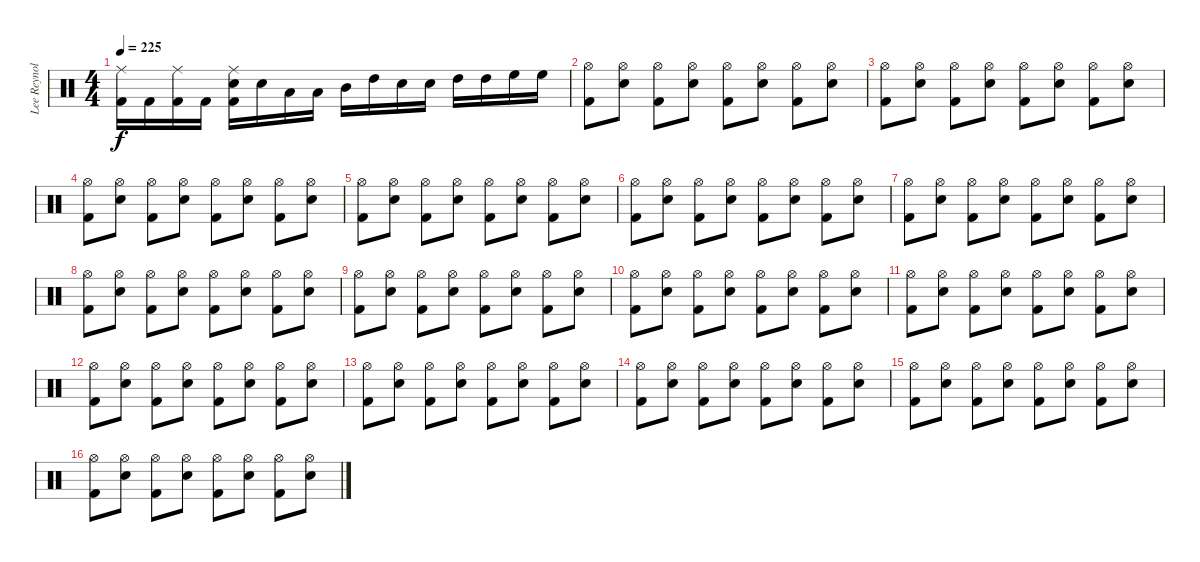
\track ("Lee Reynolds" "Lee Reynol") {instrument percussion}
\staff {score}
\articulation defaults
\ts (4 4)
\tempo 225
\clef neutral
\ks c
("Ride (middle)" "Kick (hit) 2").16{dy f} "Kick (hit) 2".16 ("Ride (middle)" "Kick (hit) 2").16 "Kick (hit) 2".16 ("Ride (middle)" "Snare (hit) 2" "Kick (hit) 2").16 "Snare (hit) 2".16 "Low Tom (hit)".16 "Low Tom (hit)".16 "Mid Tom (hit)".16 "High Tom (hit)".16 "Snare (hit) 2".16 "Snare (hit) 2".16 "High Tom (hit)".16 "High Tom (hit)".16 "High Floor Tom (hit)".16 "High Floor Tom (hit)".16 |
("Hi-Hat (open)" "Kick (hit) 2").8 ("Hi-Hat (open)" "Snare (hit) 2").8 ("Hi-Hat (open)" "Kick (hit) 2").8 ("Hi-Hat (open)" "Snare (hit) 2").8 ("Hi-Hat (open)" "Kick (hit) 2").8 ("Hi-Hat (open)" "Snare (hit) 2").8 ("Hi-Hat (open)" "Kick (hit) 2").8 ("Hi-Hat (open)" "Snare (hit) 2").8 |
("Hi-Hat (open)" "Kick (hit) 2").8 ("Hi-Hat (open)" "Snare (hit) 2").8 ("Hi-Hat (open)" "Kick (hit) 2").8 ("Hi-Hat (open)" "Snare (hit) 2").8 ("Hi-Hat (open)" "Kick (hit) 2").8 ("Hi-Hat (open)" "Snare (hit) 2").8 ("Hi-Hat (open)" "Kick (hit) 2").8 ("Hi-Hat (open)" "Snare (hit) 2").8 |
("Hi-Hat (open)" "Kick (hit) 2").8 ("Hi-Hat (open)" "Snare (hit) 2").8 ("Hi-Hat (open)" "Kick (hit) 2").8 ("Hi-Hat (open)" "Snare (hit) 2").8 ("Hi-Hat (open)" "Kick (hit) 2").8 ("Hi-Hat (open)" "Snare (hit) 2").8 ("Hi-Hat (open)" "Kick (hit) 2").8 ("Hi-Hat (open)" "Snare (hit) 2").8 |
("Hi-Hat (open)" "Kick (hit) 2").8 ("Hi-Hat (open)" "Snare (hit) 2").8 ("Hi-Hat (open)" "Kick (hit) 2").8 ("Hi-Hat (open)" "Snare (hit) 2").8 ("Hi-Hat (open)" "Kick (hit) 2").8 ("Hi-Hat (open)" "Snare (hit) 2").8 ("Hi-Hat (open)" "Kick (hit) 2").8 ("Hi-Hat (open)" "Snare (hit) 2").8 |
("Hi-Hat (open)" "Kick (hit) 2").8 ("Hi-Hat (open)" "Snare (hit) 2").8 ("Hi-Hat (open)" "Kick (hit) 2").8 ("Hi-Hat (open)" "Snare (hit) 2").8 ("Hi-Hat (open)" "Kick (hit) 2").8 ("Hi-Hat (open)" "Snare (hit) 2").8 ("Hi-Hat (open)" "Kick (hit) 2").8 ("Hi-Hat (open)" "Snare (hit) 2").8 |
("Hi-Hat (open)" "Kick (hit) 2").8 ("Hi-Hat (open)" "Snare (hit) 2").8 ("Hi-Hat (open)" "Kick (hit) 2").8 ("Hi-Hat (open)" "Snare (hit) 2").8 ("Hi-Hat (open)" "Kick (hit) 2").8 ("Hi-Hat (open)" "Snare (hit) 2").8 ("Hi-Hat (open)" "Kick (hit) 2").8 ("Hi-Hat (open)" "Snare (hit) 2").8 |
("Hi-Hat (open)" "Kick (hit) 2").8 ("Hi-Hat (open)" "Snare (hit) 2").8 ("Hi-Hat (open)" "Kick (hit) 2").8 ("Hi-Hat (open)" "Snare (hit) 2").8 ("Hi-Hat (open)" "Kick (hit) 2").8 ("Hi-Hat (open)" "Snare (hit) 2").8 ("Hi-Hat (open)" "Kick (hit) 2").8 ("Hi-Hat (open)" "Snare (hit) 2").8 |
("Hi-Hat (open)" "Kick (hit) 2").8 ("Hi-Hat (open)" "Snare (hit) 2").8 ("Hi-Hat (open)" "Kick (hit) 2").8 ("Hi-Hat (open)" "Snare (hit) 2").8 ("Hi-Hat (open)" "Kick (hit) 2").8 ("Hi-Hat (open)" "Snare (hit) 2").8 ("Hi-Hat (open)" "Kick (hit) 2").8 ("Hi-Hat (open)" "Snare (hit) 2").8 |
("Hi-Hat (open)" "Kick (hit) 2").8 ("Hi-Hat (open)" "Snare (hit) 2").8 ("Hi-Hat (open)" "Kick (hit) 2").8 ("Hi-Hat (open)" "Snare (hit) 2").8 ("Hi-Hat (open)" "Kick (hit) 2").8 ("Hi-Hat (open)" "Snare (hit) 2").8 ("Hi-Hat (open)" "Kick (hit) 2").8 ("Hi-Hat (open)" "Snare (hit) 2").8 |
("Hi-Hat (open)" "Kick (hit) 2").8 ("Hi-Hat (open)" "Snare (hit) 2").8 ("Hi-Hat (open)" "Kick (hit) 2").8 ("Hi-Hat (open)" "Snare (hit) 2").8 ("Hi-Hat (open)" "Kick (hit) 2").8 ("Hi-Hat (open)" "Snare (hit) 2").8 ("Hi-Hat (open)" "Kick (hit) 2").8 ("Hi-Hat (open)" "Snare (hit) 2").8 |
("Hi-Hat (open)" "Kick (hit) 2").8 ("Hi-Hat (open)" "Snare (hit) 2").8 ("Hi-Hat (open)" "Kick (hit) 2").8 ("Hi-Hat (open)" "Snare (hit) 2").8 ("Hi-Hat (open)" "Kick (hit) 2").8 ("Hi-Hat (open)" "Snare (hit) 2").8 ("Hi-Hat (open)" "Kick (hit) 2").8 ("Hi-Hat (open)" "Snare (hit) 2").8 |
("Hi-Hat (open)" "Kick (hit) 2").8 ("Hi-Hat (open)" "Snare (hit) 2").8 ("Hi-Hat (open)" "Kick (hit) 2").8 ("Hi-Hat (open)" "Snare (hit) 2").8 ("Hi-Hat (open)" "Kick (hit) 2").8 ("Hi-Hat (open)" "Snare (hit) 2").8 ("Hi-Hat (open)" "Kick (hit) 2").8 ("Hi-Hat (open)" "Snare (hit) 2").8 |
("Hi-Hat (open)" "Kick (hit) 2").8 ("Hi-Hat (open)" "Snare (hit) 2").8 ("Hi-Hat (open)" "Kick (hit) 2").8 ("Hi-Hat (open)" "Snare (hit) 2").8 ("Hi-Hat (open)" "Kick (hit) 2").8 ("Hi-Hat (open)" "Snare (hit) 2").8 ("Hi-Hat (open)" "Kick (hit) 2").8 ("Hi-Hat (open)" "Snare (hit) 2").8 |
("Hi-Hat (open)" "Kick (hit) 2").8 ("Hi-Hat (open)" "Snare (hit) 2").8 ("Hi-Hat (open)" "Kick (hit) 2").8 ("Hi-Hat (open)" "Snare (hit) 2").8 ("Hi-Hat (open)" "Kick (hit) 2").8 ("Hi-Hat (open)" "Snare (hit) 2").8 ("Hi-Hat (open)" "Kick (hit) 2").8 ("Hi-Hat (open)" "Snare (hit) 2").8 |
("Hi-Hat (open)" "Kick (hit) 2").8 ("Hi-Hat (open)" "Snare (hit) 2").8 ("Hi-Hat (open)" "Kick (hit) 2").8 ("Hi-Hat (open)" "Snare (hit) 2").8 ("Hi-Hat (open)" "Kick (hit) 2").8 ("Hi-Hat (open)" "Snare (hit) 2").8 ("Hi-Hat (open)" "Kick (hit) 2").8 ("Hi-Hat (open)" "Snare (hit) 2").8
